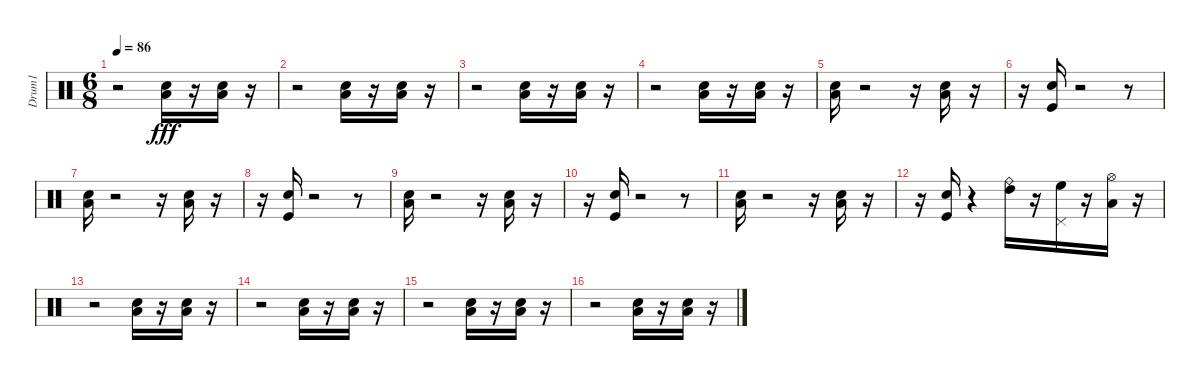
\track ("Drum1" "Drum1") {instrument percussion}
\staff {score}
\articulation defaults
\ts (6 8)
\tempo 86
\clef neutral
\ks c
r.2{dy fff} ("Snare (hit) 2" "Low Floor Tom (hit)").16 r.16 ("Snare (hit) 2" "Low Floor Tom (hit)").16 r.16 |
r.2 ("Snare (hit) 2" "Low Floor Tom (hit)").16 r.16 ("Snare (hit) 2" "Low Floor Tom (hit)").16 r.16 |
r.2 ("Snare (hit) 2" "Low Floor Tom (hit)").16 r.16 ("Snare (hit) 2" "Low Floor Tom (hit)").16 r.16 |
r.2 ("Snare (hit) 2" "Low Floor Tom (hit)").16 r.16 ("Snare (hit) 2" "Low Floor Tom (hit)").16 r.16 |
("Snare (hit) 2" "Low Floor Tom (hit)").16 r.2 r.16 ("Snare (hit) 2" "Low Floor Tom (hit)").16 r.16 |
r.16 ("Kick (hit)" "Snare (hit) 2").16 r.2 r.8 |
("Snare (hit) 2" "Low Floor Tom (hit)").16 r.2 r.16 ("Snare (hit) 2" "Low Floor Tom (hit)").16 r.16 |
r.16 ("Kick (hit)" "Snare (hit) 2").16 r.2 r.8 |
("Snare (hit) 2" "Low Floor Tom (hit)").16 r.2 r.16 ("Snare (hit) 2" "Low Floor Tom (hit)").16 r.16 |
r.16 ("Kick (hit)" "Snare (hit) 2").16 r.2 r.8 |
("Snare (hit) 2" "Low Floor Tom (hit)").16 r.2 r.16 ("Snare (hit) 2" "Low Floor Tom (hit)").16 r.16 |
r.16 ("Kick (hit)" "Snare (hit) 2").16 r.4 ("High Tom (hit)" "Ride (bell)").16 r.16 ("Pedal Hi-Hat (hit)" "High Floor Tom (hit)").16 r.16 ("Low Floor Tom (hit)" "Hi-Hat (open)").16 r.16 |
r.2 ("Snare (hit) 2" "Low Floor Tom (hit)").16 r.16 ("Snare (hit) 2" "Low Floor Tom (hit)").16 r.16 |
r.2 ("Snare (hit) 2" "Low Floor Tom (hit)").16 r.16 ("Snare (hit) 2" "Low Floor Tom (hit)").16 r.16 |
r.2 ("Snare (hit) 2" "Low Floor Tom (hit)").16 r.16 ("Snare (hit) 2" "Low Floor Tom (hit)").16 r.16 |
r.2 ("Snare (hit) 2" "Low Floor Tom (hit)").16 r.16 ("Snare (hit) 2" "Low Floor Tom (hit)").16 r.16
